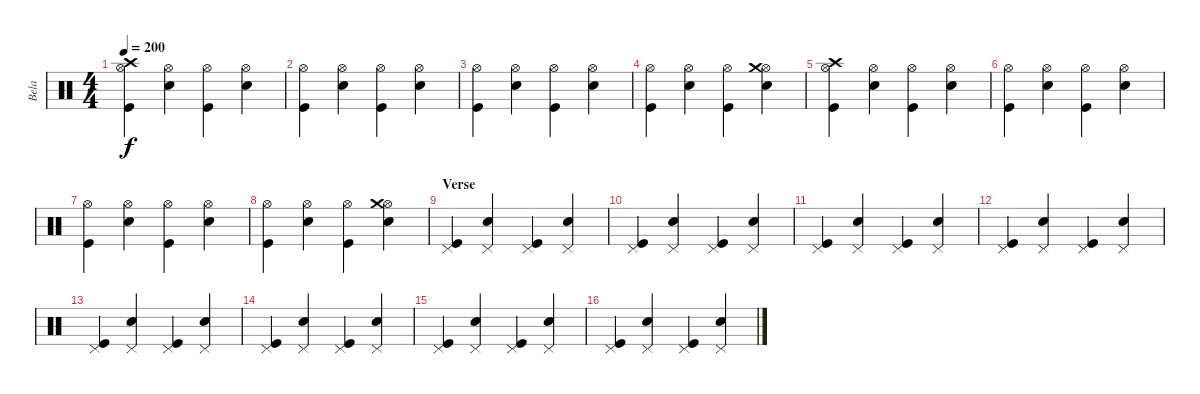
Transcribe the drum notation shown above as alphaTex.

\track ("Bela" "Bela") {instrument percussion}
\staff {score}
\articulation defaults
\ts (4 4)
\tempo 200
\clef neutral
\ks c
("Hi-Hat (open)" "Crash high (hit)" "Kick (hit)").4{dy f} ("Hi-Hat (open)" "Electric Snare (hit)").4 ("Hi-Hat (open)" "Kick (hit)").4 ("Hi-Hat (open)" "Electric Snare (hit)").4 |
("Hi-Hat (open)" "Kick (hit)").4 ("Hi-Hat (open)" "Electric Snare (hit)").4 ("Hi-Hat (open)" "Kick (hit)").4 ("Hi-Hat (open)" "Electric Snare (hit)").4 |
("Hi-Hat (open)" "Kick (hit)").4 ("Hi-Hat (open)" "Electric Snare (hit)").4 ("Hi-Hat (open)" "Kick (hit)").4 ("Hi-Hat (open)" "Electric Snare (hit)").4 |
("Hi-Hat (open)" "Kick (hit)").4 ("Hi-Hat (open)" "Electric Snare (hit)").4 ("Hi-Hat (open)" "Kick (hit)").4 ("Hi-Hat (open)" "Crash medium (hit)" "Electric Snare (hit)").4 |
("Hi-Hat (open)" "Crash high (hit)" "Kick (hit)").4 ("Hi-Hat (open)" "Electric Snare (hit)").4 ("Hi-Hat (open)" "Kick (hit)").4 ("Hi-Hat (open)" "Electric Snare (hit)").4 |
("Hi-Hat (open)" "Kick (hit)").4 ("Hi-Hat (open)" "Electric Snare (hit)").4 ("Hi-Hat (open)" "Kick (hit)").4 ("Hi-Hat (open)" "Electric Snare (hit)").4 |
("Hi-Hat (open)" "Kick (hit)").4 ("Hi-Hat (open)" "Electric Snare (hit)").4 ("Hi-Hat (open)" "Kick (hit)").4 ("Hi-Hat (open)" "Electric Snare (hit)").4 |
("Hi-Hat (open)" "Kick (hit)").4 ("Hi-Hat (open)" "Electric Snare (hit)").4 ("Hi-Hat (open)" "Kick (hit)").4 ("Hi-Hat (open)" "Crash medium (hit)" "Electric Snare (hit)").4 |
\section ("" "Verse")
("Pedal Hi-Hat (hit)" "Kick (hit)").4 ("Pedal Hi-Hat (hit)" "Electric Snare (hit)").4 ("Pedal Hi-Hat (hit)" "Kick (hit)").4 ("Pedal Hi-Hat (hit)" "Electric Snare (hit)").4 |
("Pedal Hi-Hat (hit)" "Kick (hit)").4 ("Pedal Hi-Hat (hit)" "Electric Snare (hit)").4 ("Pedal Hi-Hat (hit)" "Kick (hit)").4 ("Pedal Hi-Hat (hit)" "Electric Snare (hit)").4 |
("Pedal Hi-Hat (hit)" "Kick (hit)").4 ("Pedal Hi-Hat (hit)" "Electric Snare (hit)").4 ("Pedal Hi-Hat (hit)" "Kick (hit)").4 ("Pedal Hi-Hat (hit)" "Electric Snare (hit)").4 |
("Pedal Hi-Hat (hit)" "Kick (hit)").4 ("Pedal Hi-Hat (hit)" "Electric Snare (hit)").4 ("Pedal Hi-Hat (hit)" "Kick (hit)").4 ("Pedal Hi-Hat (hit)" "Electric Snare (hit)").4 |
("Pedal Hi-Hat (hit)" "Kick (hit)").4 ("Pedal Hi-Hat (hit)" "Electric Snare (hit)").4 ("Pedal Hi-Hat (hit)" "Kick (hit)").4 ("Pedal Hi-Hat (hit)" "Electric Snare (hit)").4 |
("Pedal Hi-Hat (hit)" "Kick (hit)").4 ("Pedal Hi-Hat (hit)" "Electric Snare (hit)").4 ("Pedal Hi-Hat (hit)" "Kick (hit)").4 ("Pedal Hi-Hat (hit)" "Electric Snare (hit)").4 |
("Pedal Hi-Hat (hit)" "Kick (hit)").4 ("Pedal Hi-Hat (hit)" "Electric Snare (hit)").4 ("Pedal Hi-Hat (hit)" "Kick (hit)").4 ("Pedal Hi-Hat (hit)" "Electric Snare (hit)").4 |
("Pedal Hi-Hat (hit)" "Kick (hit)").4 ("Pedal Hi-Hat (hit)" "Electric Snare (hit)").4 ("Pedal Hi-Hat (hit)" "Kick (hit)").4 ("Pedal Hi-Hat (hit)" "Electric Snare (hit)").4
